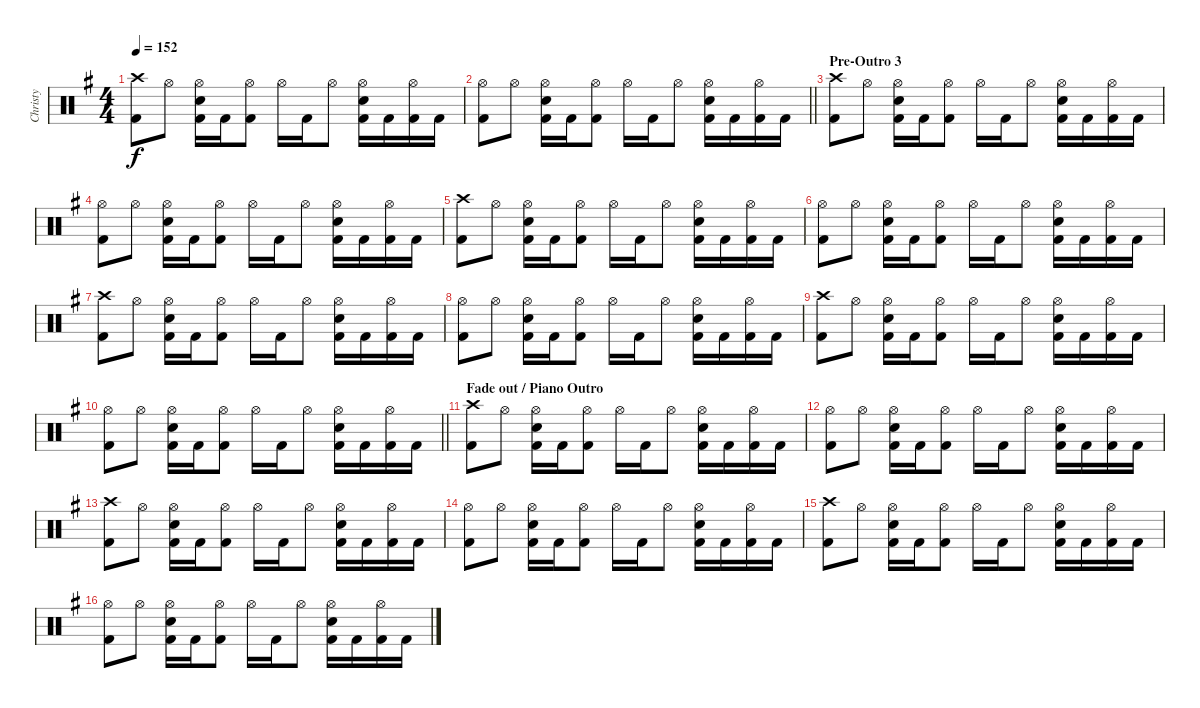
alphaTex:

\track ("Christy" "Christy") {instrument percussion}
\staff {score}
\articulation defaults
\ts (4 4)
\tempo 152
\clef neutral
\ks g
("Crash high (hit)" "Kick (hit) 2").8{dy f} "Hi-Hat (open)".8 ("Hi-Hat (open)" "Snare (hit) 2" "Kick (hit) 2").16 "Kick (hit) 2".16 ("Hi-Hat (open)" "Kick (hit) 2").8 "Hi-Hat (open)".16 "Kick (hit) 2".16 "Hi-Hat (open)".8 ("Hi-Hat (open)" "Snare (hit) 2" "Kick (hit) 2").16 "Kick (hit) 2".16 ("Hi-Hat (open)" "Kick (hit) 2").16 "Kick (hit) 2".16 |
\barLineRight lightlight
("Hi-Hat (open)" "Kick (hit) 2").8 "Hi-Hat (open)".8 ("Hi-Hat (open)" "Snare (hit) 2" "Kick (hit) 2").16 "Kick (hit) 2".16 ("Hi-Hat (open)" "Kick (hit) 2").8 "Hi-Hat (open)".16 "Kick (hit) 2".16 "Hi-Hat (open)".8 ("Hi-Hat (open)" "Snare (hit) 2" "Kick (hit) 2").16 "Kick (hit) 2".16 ("Hi-Hat (open)" "Kick (hit) 2").16 "Kick (hit) 2".16 |
\section ("" "Pre-Outro 3")
("Crash high (hit)" "Kick (hit) 2").8 "Hi-Hat (open)".8 ("Hi-Hat (open)" "Snare (hit) 2" "Kick (hit) 2").16 "Kick (hit) 2".16 ("Hi-Hat (open)" "Kick (hit) 2").8 "Hi-Hat (open)".16 "Kick (hit) 2".16 "Hi-Hat (open)".8 ("Hi-Hat (open)" "Snare (hit) 2" "Kick (hit) 2").16 "Kick (hit) 2".16 ("Hi-Hat (open)" "Kick (hit) 2").16 "Kick (hit) 2".16 |
("Hi-Hat (open)" "Kick (hit) 2").8 "Hi-Hat (open)".8 ("Hi-Hat (open)" "Snare (hit) 2" "Kick (hit) 2").16 "Kick (hit) 2".16 ("Hi-Hat (open)" "Kick (hit) 2").8 "Hi-Hat (open)".16 "Kick (hit) 2".16 "Hi-Hat (open)".8 ("Hi-Hat (open)" "Snare (hit) 2" "Kick (hit) 2").16 "Kick (hit) 2".16 ("Hi-Hat (open)" "Kick (hit) 2").16 "Kick (hit) 2".16 |
("Crash high (hit)" "Kick (hit) 2").8 "Hi-Hat (open)".8 ("Hi-Hat (open)" "Snare (hit) 2" "Kick (hit) 2").16 "Kick (hit) 2".16 ("Hi-Hat (open)" "Kick (hit) 2").8 "Hi-Hat (open)".16 "Kick (hit) 2".16 "Hi-Hat (open)".8 ("Hi-Hat (open)" "Snare (hit) 2" "Kick (hit) 2").16 "Kick (hit) 2".16 ("Hi-Hat (open)" "Kick (hit) 2").16 "Kick (hit) 2".16 |
("Hi-Hat (open)" "Kick (hit) 2").8 "Hi-Hat (open)".8 ("Hi-Hat (open)" "Snare (hit) 2" "Kick (hit) 2").16 "Kick (hit) 2".16 ("Hi-Hat (open)" "Kick (hit) 2").8 "Hi-Hat (open)".16 "Kick (hit) 2".16 "Hi-Hat (open)".8 ("Hi-Hat (open)" "Snare (hit) 2" "Kick (hit) 2").16 "Kick (hit) 2".16 ("Hi-Hat (open)" "Kick (hit) 2").16 "Kick (hit) 2".16 |
("Crash high (hit)" "Kick (hit) 2").8 "Hi-Hat (open)".8 ("Hi-Hat (open)" "Snare (hit) 2" "Kick (hit) 2").16 "Kick (hit) 2".16 ("Hi-Hat (open)" "Kick (hit) 2").8 "Hi-Hat (open)".16 "Kick (hit) 2".16 "Hi-Hat (open)".8 ("Hi-Hat (open)" "Snare (hit) 2" "Kick (hit) 2").16 "Kick (hit) 2".16 ("Hi-Hat (open)" "Kick (hit) 2").16 "Kick (hit) 2".16 |
("Hi-Hat (open)" "Kick (hit) 2").8 "Hi-Hat (open)".8 ("Hi-Hat (open)" "Snare (hit) 2" "Kick (hit) 2").16 "Kick (hit) 2".16 ("Hi-Hat (open)" "Kick (hit) 2").8 "Hi-Hat (open)".16 "Kick (hit) 2".16 "Hi-Hat (open)".8 ("Hi-Hat (open)" "Snare (hit) 2" "Kick (hit) 2").16 "Kick (hit) 2".16 ("Hi-Hat (open)" "Kick (hit) 2").16 "Kick (hit) 2".16 |
("Crash high (hit)" "Kick (hit) 2").8 "Hi-Hat (open)".8 ("Hi-Hat (open)" "Snare (hit) 2" "Kick (hit) 2").16 "Kick (hit) 2".16 ("Hi-Hat (open)" "Kick (hit) 2").8 "Hi-Hat (open)".16 "Kick (hit) 2".16 "Hi-Hat (open)".8 ("Hi-Hat (open)" "Snare (hit) 2" "Kick (hit) 2").16 "Kick (hit) 2".16 ("Hi-Hat (open)" "Kick (hit) 2").16 "Kick (hit) 2".16 |
\barLineRight lightlight
("Hi-Hat (open)" "Kick (hit) 2").8 "Hi-Hat (open)".8 ("Hi-Hat (open)" "Snare (hit) 2" "Kick (hit) 2").16 "Kick (hit) 2".16 ("Hi-Hat (open)" "Kick (hit) 2").8 "Hi-Hat (open)".16 "Kick (hit) 2".16 "Hi-Hat (open)".8 ("Hi-Hat (open)" "Snare (hit) 2" "Kick (hit) 2").16 "Kick (hit) 2".16 ("Hi-Hat (open)" "Kick (hit) 2").16 "Kick (hit) 2".16 |
\section ("" "Fade out / Piano Outro")
("Crash high (hit)" "Kick (hit) 2").8{volume 10} "Hi-Hat (open)".8 ("Hi-Hat (open)" "Snare (hit) 2" "Kick (hit) 2").16 "Kick (hit) 2".16 ("Hi-Hat (open)" "Kick (hit) 2").8 "Hi-Hat (open)".16 "Kick (hit) 2".16 "Hi-Hat (open)".8 ("Hi-Hat (open)" "Snare (hit) 2" "Kick (hit) 2").16 "Kick (hit) 2".16 ("Hi-Hat (open)" "Kick (hit) 2").16 "Kick (hit) 2".16 |
("Hi-Hat (open)" "Kick (hit) 2").8 "Hi-Hat (open)".8 ("Hi-Hat (open)" "Snare (hit) 2" "Kick (hit) 2").16 "Kick (hit) 2".16 ("Hi-Hat (open)" "Kick (hit) 2").8 "Hi-Hat (open)".16 "Kick (hit) 2".16 "Hi-Hat (open)".8 ("Hi-Hat (open)" "Snare (hit) 2" "Kick (hit) 2").16 "Kick (hit) 2".16 ("Hi-Hat (open)" "Kick (hit) 2").16 "Kick (hit) 2".16 |
("Crash high (hit)" "Kick (hit) 2").8 "Hi-Hat (open)".8 ("Hi-Hat (open)" "Snare (hit) 2" "Kick (hit) 2").16 "Kick (hit) 2".16 ("Hi-Hat (open)" "Kick (hit) 2").8 "Hi-Hat (open)".16 "Kick (hit) 2".16 "Hi-Hat (open)".8 ("Hi-Hat (open)" "Snare (hit) 2" "Kick (hit) 2").16 "Kick (hit) 2".16 ("Hi-Hat (open)" "Kick (hit) 2").16 "Kick (hit) 2".16 |
("Hi-Hat (open)" "Kick (hit) 2").8 "Hi-Hat (open)".8 ("Hi-Hat (open)" "Snare (hit) 2" "Kick (hit) 2").16 "Kick (hit) 2".16 ("Hi-Hat (open)" "Kick (hit) 2").8 "Hi-Hat (open)".16 "Kick (hit) 2".16 "Hi-Hat (open)".8 ("Hi-Hat (open)" "Snare (hit) 2" "Kick (hit) 2").16 "Kick (hit) 2".16 ("Hi-Hat (open)" "Kick (hit) 2").16 "Kick (hit) 2".16 |
("Crash high (hit)" "Kick (hit) 2").8{volume 8} "Hi-Hat (open)".8 ("Hi-Hat (open)" "Snare (hit) 2" "Kick (hit) 2").16 "Kick (hit) 2".16 ("Hi-Hat (open)" "Kick (hit) 2").8 "Hi-Hat (open)".16 "Kick (hit) 2".16 "Hi-Hat (open)".8 ("Hi-Hat (open)" "Snare (hit) 2" "Kick (hit) 2").16 "Kick (hit) 2".16 ("Hi-Hat (open)" "Kick (hit) 2").16 "Kick (hit) 2".16 |
("Hi-Hat (open)" "Kick (hit) 2").8 "Hi-Hat (open)".8 ("Hi-Hat (open)" "Snare (hit) 2" "Kick (hit) 2").16 "Kick (hit) 2".16 ("Hi-Hat (open)" "Kick (hit) 2").8 "Hi-Hat (open)".16 "Kick (hit) 2".16 "Hi-Hat (open)".8 ("Hi-Hat (open)" "Snare (hit) 2" "Kick (hit) 2").16 "Kick (hit) 2".16 ("Hi-Hat (open)" "Kick (hit) 2").16 "Kick (hit) 2".16
